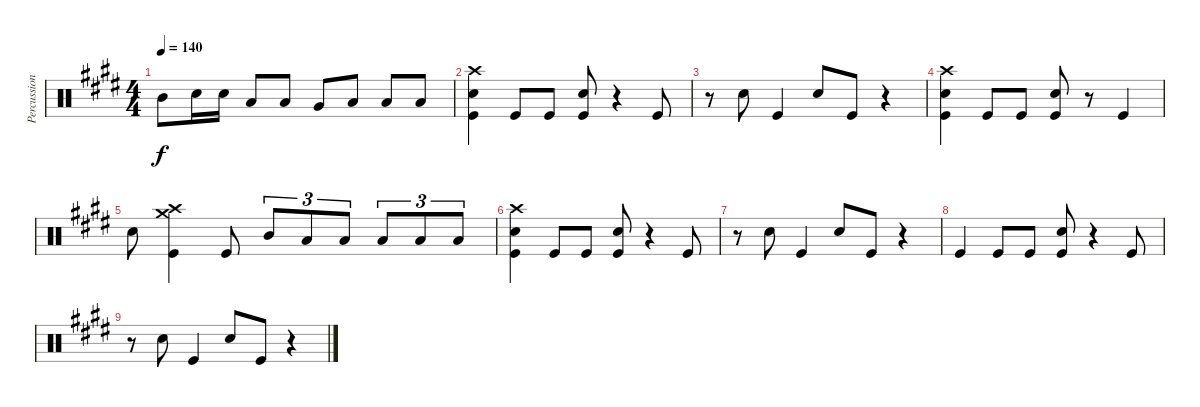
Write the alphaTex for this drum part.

\track ("Percussion" "Percussion") {instrument percussion}
\staff {score}
\articulation defaults
\ts (4 4)
\tempo 140
\clef neutral
\ks e "Mid Tom (hit)".8{dy f} "Snare (hit) 2".16 "Snare (hit) 2".16 "Low Tom (hit)".8 "Low Tom (hit)".8 "Very Low Tom (hit)".8 "Low Floor Tom (hit)".8 "Low Floor Tom (hit)".8 "Low Floor Tom (hit)".8
|
("Kick (hit)" "Crash high (hit)" "Snare (hit) 2").4 "Kick (hit)".8 "Kick (hit)".8 ("Kick (hit)" "Snare (hit) 2").8 r.4 "Kick (hit)".8 |
r.8 "Snare (hit) 2".8 "Kick (hit)".4 "Snare (hit) 2".8 "Kick (hit)".8 r.4 |
("Kick (hit)" "Crash high (hit)" "Snare (hit) 2").4 "Kick (hit)".8 "Kick (hit)".8 ("Kick (hit)" "Snare (hit) 2").8 r.8 "Kick (hit)".4 |
"Snare (hit) 2".8 ("Kick (hit)" "Crash high (hit)" "Crash medium (hit)").4 "Kick (hit)".8 "Mid Tom (hit)".8{tu (3 2)} "Low Tom (hit)".8{tu (3 2)} "Low Tom (hit)".8{tu (3 2)} "Low Tom (hit)".8{tu (3 2)} "Low Tom (hit)".8{tu (3 2)} "Low Tom (hit)".8{tu (3 2)} |
("Kick (hit)" "Crash high (hit)" "Snare (hit) 2").4 "Kick (hit)".8 "Kick (hit)".8 ("Kick (hit)" "Snare (hit) 2").8 r.4 "Kick (hit)".8 |
r.8 "Snare (hit) 2".8 "Kick (hit)".4 "Snare (hit) 2".8 "Kick (hit)".8 r.4 |
"Kick (hit)".4 "Kick (hit)".8 "Kick (hit)".8 ("Kick (hit)" "Snare (hit) 2").8 r.4 "Kick (hit)".8 |
r.8 "Snare (hit) 2".8 "Kick (hit)".4 "Snare (hit) 2".8 "Kick (hit)".8 r.4
